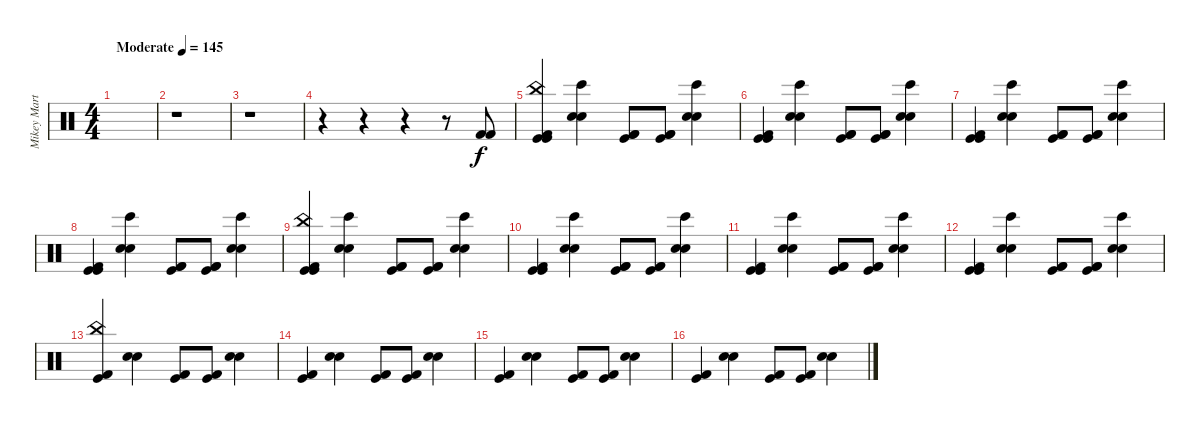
\track ("Mikey Martin" "Mikey Mart") {instrument percussion}
\staff {score}
\articulation defaults
\ts (4 4)
\tempo (145 "Moderate")
\clef neutral
\ks c
|
r.1 |
r.1 |
r.4 r.4 r.4 r.8 ("Kick (hit) 2" "Kick (hit) 2").8 |
("China (hit)" "Kick (hit)" "Kick (hit)" "Kick (hit) 2").4 ("Bongo High (hit)" "Snare (hit) 2" "Electric Snare (hit)").4 ("Kick (hit) 2" "Kick (hit)" "Kick (hit) 2").8 ("Kick (hit) 2" "Kick (hit)" "Kick (hit) 2").8 ("Bongo High (hit)" "Snare (hit) 2" "Electric Snare (hit)").4 |
("Kick (hit)" "Kick (hit)" "Kick (hit) 2").4 ("Bongo High (hit)" "Snare (hit) 2" "Electric Snare (hit)").4 ("Kick (hit) 2" "Kick (hit)" "Kick (hit) 2").8 ("Kick (hit) 2" "Kick (hit)" "Kick (hit) 2").8 ("Bongo High (hit)" "Snare (hit) 2" "Electric Snare (hit)").4 |
("Kick (hit)" "Kick (hit)" "Kick (hit) 2").4 ("Bongo High (hit)" "Snare (hit) 2" "Electric Snare (hit)").4 ("Kick (hit) 2" "Kick (hit)" "Kick (hit) 2").8 ("Kick (hit) 2" "Kick (hit)" "Kick (hit) 2").8 ("Bongo High (hit)" "Snare (hit) 2" "Electric Snare (hit)").4 |
("Kick (hit)" "Kick (hit)" "Kick (hit) 2").4 ("Bongo High (hit)" "Snare (hit) 2" "Electric Snare (hit)").4 ("Kick (hit) 2" "Kick (hit)" "Kick (hit) 2").8 ("Kick (hit) 2" "Kick (hit)" "Kick (hit) 2").8 ("Bongo High (hit)" "Snare (hit) 2" "Electric Snare (hit)").4 |
("China (hit)" "Kick (hit)" "Kick (hit)" "Kick (hit) 2").4 ("Bongo High (hit)" "Snare (hit) 2" "Electric Snare (hit)").4 ("Kick (hit) 2" "Kick (hit)" "Kick (hit) 2").8 ("Kick (hit) 2" "Kick (hit)" "Kick (hit) 2").8 ("Bongo High (hit)" "Snare (hit) 2" "Electric Snare (hit)").4 |
("Kick (hit)" "Kick (hit)" "Kick (hit) 2").4 ("Bongo High (hit)" "Snare (hit) 2" "Electric Snare (hit)").4 ("Kick (hit) 2" "Kick (hit)" "Kick (hit) 2").8 ("Kick (hit) 2" "Kick (hit)" "Kick (hit) 2").8 ("Bongo High (hit)" "Snare (hit) 2" "Electric Snare (hit)").4 |
("Kick (hit)" "Kick (hit)" "Kick (hit) 2").4 ("Bongo High (hit)" "Snare (hit) 2" "Electric Snare (hit)").4 ("Kick (hit) 2" "Kick (hit)" "Kick (hit) 2").8 ("Kick (hit) 2" "Kick (hit)" "Kick (hit) 2").8 ("Bongo High (hit)" "Snare (hit) 2" "Electric Snare (hit)").4 |
("Kick (hit)" "Kick (hit)" "Kick (hit) 2").4 ("Bongo High (hit)" "Snare (hit) 2" "Electric Snare (hit)").4 ("Kick (hit) 2" "Kick (hit)" "Kick (hit) 2").8 ("Kick (hit) 2" "Kick (hit)" "Kick (hit) 2").8 ("Bongo High (hit)" "Snare (hit) 2" "Electric Snare (hit)").4 |
("China (hit)" "Kick (hit)" "Kick (hit) 2").4 ("Snare (hit) 2" "Electric Snare (hit)").4 ("Kick (hit)" "Kick (hit) 2").8 ("Kick (hit)" "Kick (hit) 2").8 ("Snare (hit) 2" "Electric Snare (hit)").4 |
("Kick (hit)" "Kick (hit) 2").4 ("Snare (hit) 2" "Electric Snare (hit)").4 ("Kick (hit)" "Kick (hit) 2").8 ("Kick (hit)" "Kick (hit) 2").8 ("Snare (hit) 2" "Electric Snare (hit)").4 |
("Kick (hit)" "Kick (hit) 2").4 ("Snare (hit) 2" "Electric Snare (hit)").4 ("Kick (hit)" "Kick (hit) 2").8 ("Kick (hit)" "Kick (hit) 2").8 ("Snare (hit) 2" "Electric Snare (hit)").4 |
("Kick (hit)" "Kick (hit) 2").4 ("Snare (hit) 2" "Electric Snare (hit)").4 ("Kick (hit)" "Kick (hit) 2").8 ("Kick (hit)" "Kick (hit) 2").8 ("Snare (hit) 2" "Electric Snare (hit)").4
